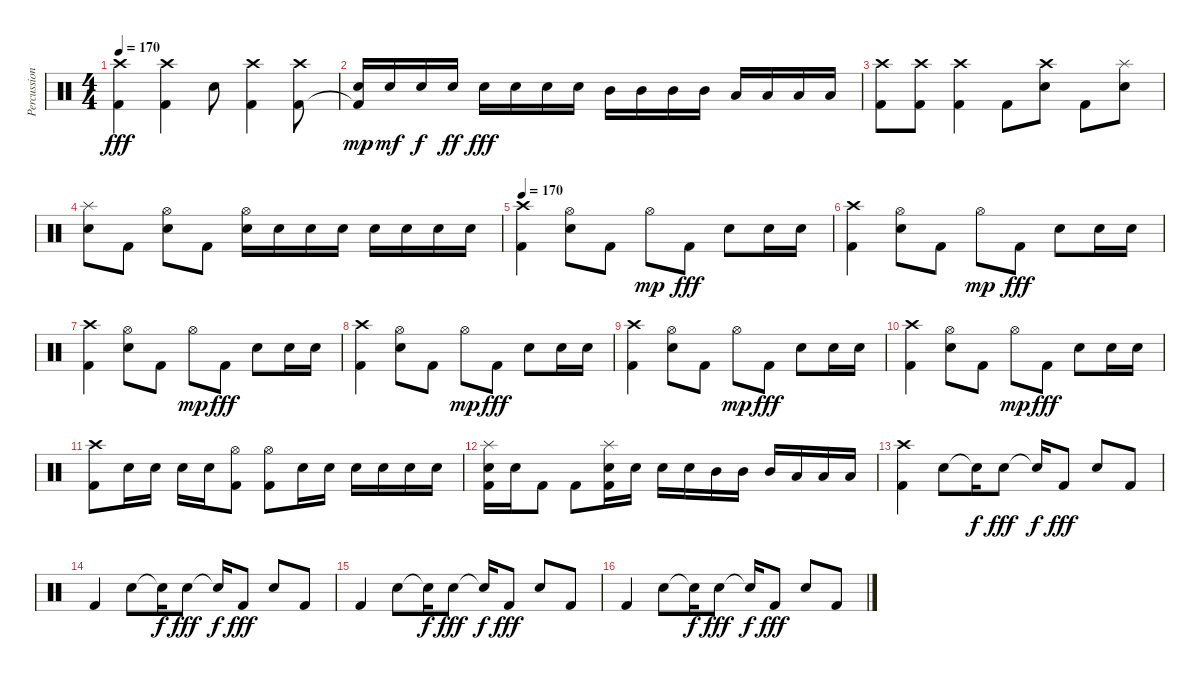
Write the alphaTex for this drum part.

\track ("Percussion" "Percussion") {instrument percussion}
\staff {score}
\articulation defaults
\ts (4 4)
\tempo 170
\clef neutral
\ks c
("Crash high (hit)" "Kick (hit) 2").4{dy fff} ("Crash high (hit)" "Kick (hit) 2").4 "Electric Snare (hit)".8 ("Crash high (hit)" "Kick (hit) 2").4 ("Crash high (hit)" "Kick (hit) 2").8 |
("Electric Snare (hit)" "Kick (hit) 2"{t}).16{dy mp} "Electric Snare (hit)".16{dy mf} "Electric Snare (hit)".16{dy f} "Electric Snare (hit)".16{dy ff} "Electric Snare (hit)".16{dy fff} "Electric Snare (hit)".16 "Electric Snare (hit)".16 "Electric Snare (hit)".16 "Mid Tom (hit)".16 "Mid Tom (hit)".16 "Mid Tom (hit)".16 "Mid Tom (hit)".16 "Low Tom (hit)".16 "Low Tom (hit)".16 "Low Tom (hit)".16 "Low Tom (hit)".16 |
("Crash high (hit)" "Kick (hit) 2").8 ("Crash high (hit)" "Kick (hit) 2").8 ("Crash high (hit)" "Kick (hit) 2").4 "Kick (hit) 2".8 ("Crash high (hit)" "Electric Snare (hit)").8 "Kick (hit) 2".8 ("Splash (hit)" "Electric Snare (hit)").8 |
("Splash (hit)" "Electric Snare (hit)").8 "Kick (hit) 2".8 ("Hi-Hat (open)" "Electric Snare (hit)").8 "Kick (hit) 2".8 ("Hi-Hat (open)" "Electric Snare (hit)").16 "Electric Snare (hit)".16 "Electric Snare (hit)".16 "Electric Snare (hit)".16 "Electric Snare (hit)".16 "Electric Snare (hit)".16 "Electric Snare (hit)".16 "Electric Snare (hit)".16 |
\tempo 170
("Crash high (hit)" "Kick (hit) 2").4 ("Hi-Hat (open)" "Electric Snare (hit)").8 "Kick (hit) 2".8 "Hi-Hat (open)".8{dy mp} "Kick (hit) 2".8{dy fff} "Electric Snare (hit)".8 "Electric Snare (hit)".16 "Electric Snare (hit)".16 |
("Crash high (hit)" "Kick (hit) 2").4 ("Hi-Hat (open)" "Electric Snare (hit)").8 "Kick (hit) 2".8 "Hi-Hat (open)".8{dy mp} "Kick (hit) 2".8{dy fff} "Electric Snare (hit)".8 "Electric Snare (hit)".16 "Electric Snare (hit)".16 |
("Crash high (hit)" "Kick (hit) 2").4 ("Hi-Hat (open)" "Electric Snare (hit)").8 "Kick (hit) 2".8 "Hi-Hat (open)".8{dy mp} "Kick (hit) 2".8{dy fff} "Electric Snare (hit)".8 "Electric Snare (hit)".16 "Electric Snare (hit)".16 |
("Crash high (hit)" "Kick (hit) 2").4 ("Hi-Hat (open)" "Electric Snare (hit)").8 "Kick (hit) 2".8 "Hi-Hat (open)".8{dy mp} "Kick (hit) 2".8{dy fff} "Electric Snare (hit)".8 "Electric Snare (hit)".16 "Electric Snare (hit)".16 |
("Crash high (hit)" "Kick (hit) 2").4 ("Hi-Hat (open)" "Electric Snare (hit)").8 "Kick (hit) 2".8 "Hi-Hat (open)".8{dy mp} "Kick (hit) 2".8{dy fff} "Electric Snare (hit)".8 "Electric Snare (hit)".16 "Electric Snare (hit)".16 |
("Crash high (hit)" "Kick (hit) 2").4 ("Hi-Hat (open)" "Electric Snare (hit)").8 "Kick (hit) 2".8 "Hi-Hat (open)".8{dy mp} "Kick (hit) 2".8{dy fff} "Electric Snare (hit)".8 "Electric Snare (hit)".16 "Electric Snare (hit)".16 |
("Crash high (hit)" "Kick (hit) 2").8 "Electric Snare (hit)".16 "Electric Snare (hit)".16 "Electric Snare (hit)".16 "Electric Snare (hit)".16 ("Hi-Hat (open)" "Kick (hit) 2").8 ("Hi-Hat (open)" "Kick (hit) 2").8 "Electric Snare (hit)".16 "Electric Snare (hit)".16 "Electric Snare (hit)".16 "Electric Snare (hit)".16 "Electric Snare (hit)".16 "Electric Snare (hit)".16 |
("Splash (hit)" "Electric Snare (hit)" "Kick (hit) 2").16 "Electric Snare (hit)".16 "Kick (hit) 2".8 "Kick (hit) 2".8 ("Splash (hit)" "Electric Snare (hit)" "Kick (hit) 2").16 "Electric Snare (hit)".16 "Electric Snare (hit)".16 "Electric Snare (hit)".16 "Mid Tom (hit)".16 "Mid Tom (hit)".16 "Mid Tom (hit)".16 "Low Tom (hit)".16 "Low Tom (hit)".16 "Low Tom (hit)".16 |
("Crash high (hit)" "Kick (hit) 2").4 "Electric Snare (hit)".8 "Electric Snare (hit)"{t}.16{dy f} "Electric Snare (hit)".8{dy fff} "Electric Snare (hit)"{t}.16{dy f} "Kick (hit) 2".8{dy fff} "Electric Snare (hit)".8 "Kick (hit) 2".8 |
"Kick (hit) 2".4 "Electric Snare (hit)".8 "Electric Snare (hit)"{t}.16{dy f} "Electric Snare (hit)".8{dy fff} "Electric Snare (hit)"{t}.16{dy f} "Kick (hit) 2".8{dy fff} "Electric Snare (hit)".8 "Kick (hit) 2".8 |
"Kick (hit) 2".4 "Electric Snare (hit)".8 "Electric Snare (hit)"{t}.16{dy f} "Electric Snare (hit)".8{dy fff} "Electric Snare (hit)"{t}.16{dy f} "Kick (hit) 2".8{dy fff} "Electric Snare (hit)".8 "Kick (hit) 2".8 |
"Kick (hit) 2".4 "Electric Snare (hit)".8 "Electric Snare (hit)"{t}.16{dy f} "Electric Snare (hit)".8{dy fff} "Electric Snare (hit)"{t}.16{dy f} "Kick (hit) 2".8{dy fff} "Electric Snare (hit)".8 "Kick (hit) 2".8
